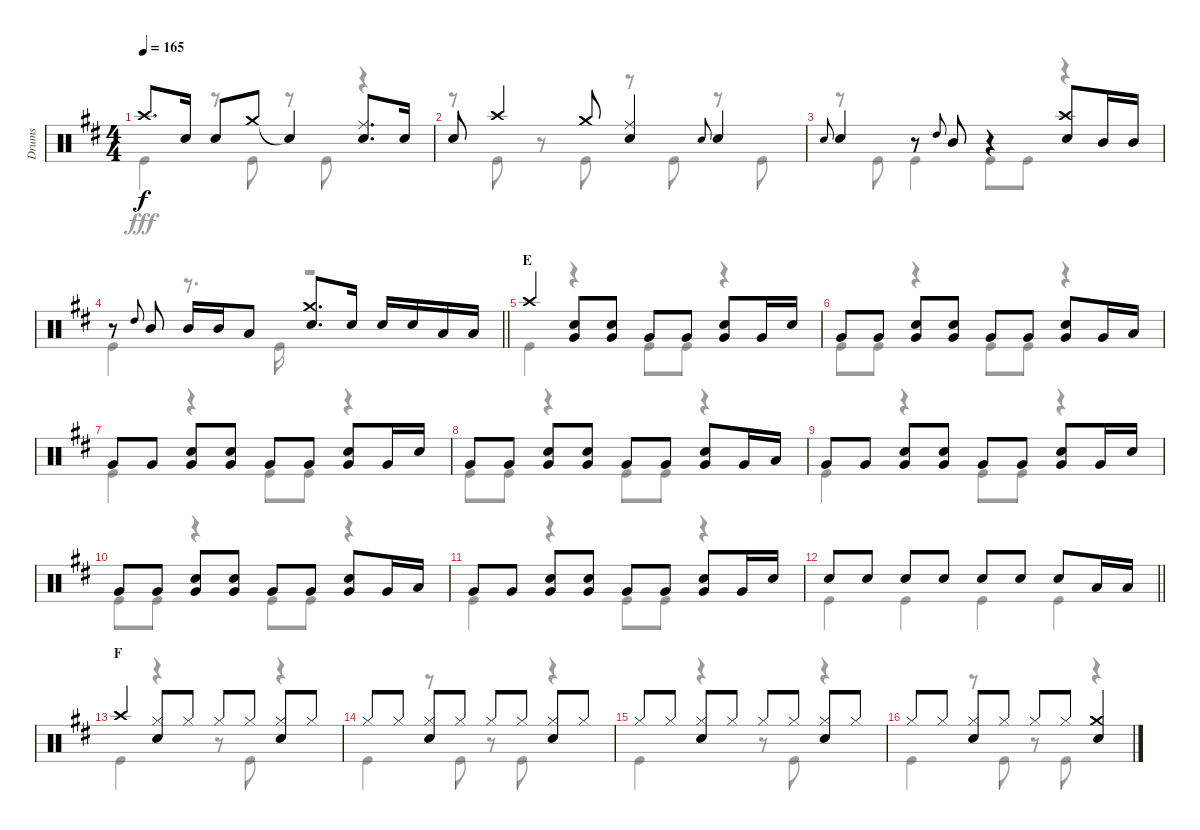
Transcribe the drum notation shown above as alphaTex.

\track ("Drums" "Drums") {instrument percussion}
\staff {score}
\articulation defaults
\voice
\ts (4 4)
\tempo 165
\clef neutral
\ks d "Crash high (hit)".8{d dy f} "Snare (hit) 2".16 "Snare (hit) 2".8 "Crash medium (hit)".8 "Snare (hit)"{t}.4
("Ride (middle)" "Snare (hit) 2").8{d} "Snare (hit) 2".16 |
"Snare (hit) 2".8 "Crash high (hit)".4 "Crash medium (hit)".8 ("Ride (middle)" "Snare (hit) 2").4 "Snare (hit) 2".8{gr onbeat} "Snare (hit) 2".4 |
"Snare (hit) 2".8{gr onbeat} "Snare (hit) 2".4 r.8 "High Tom (hit)".8{gr onbeat} "Mid Tom (hit)".8 r.4 ("Crash high (hit)" "Snare (hit) 2").8 "Mid Tom (hit)".16 "Mid Tom (hit)".16 |
\barLineRight lightlight
r.8 "High Tom (hit)".8{gr onbeat} "Mid Tom (hit)".8 "Mid Tom (hit)".16 "Mid Tom (hit)".16 "Low Tom (hit)".8 ("Crash medium (hit)" "Snare (hit) 2").8{d} "Snare (hit) 2".16 "Snare (hit) 2".16 "Snare (hit) 2".16 "Low Tom (hit)".16 "Low Tom (hit)".16 |
\section ("" "E")
"Crash high (hit)".4 ("Snare (hit) 2" "Very Low Tom (hit)").8 ("Snare (hit) 2" "Very Low Tom (hit)").8 "Very Low Tom (hit)".8 "Very Low Tom (hit)".8 ("Snare (hit) 2" "Very Low Tom (hit)").8 "Very Low Tom (hit)".16 "Snare (hit) 2".16 |
"Very Low Tom (hit)".8 "Very Low Tom (hit)".8 ("Snare (hit) 2" "Very Low Tom (hit)").8 ("Snare (hit) 2" "Very Low Tom (hit)").8 "Very Low Tom (hit)".8 "Very Low Tom (hit)".8 ("Snare (hit) 2" "Very Low Tom (hit)").8 "Very Low Tom (hit)".16 "Low Tom (hit)".16 |
"Very Low Tom (hit)".8 "Very Low Tom (hit)".8 ("Snare (hit) 2" "Very Low Tom (hit)").8 ("Snare (hit) 2" "Very Low Tom (hit)").8 "Very Low Tom (hit)".8 "Very Low Tom (hit)".8 ("Snare (hit) 2" "Very Low Tom (hit)").8 "Very Low Tom (hit)".16 "Snare (hit) 2".16 |
"Very Low Tom (hit)".8 "Very Low Tom (hit)".8 ("Snare (hit) 2" "Very Low Tom (hit)").8 ("Snare (hit) 2" "Very Low Tom (hit)").8 "Very Low Tom (hit)".8 "Very Low Tom (hit)".8 ("Snare (hit) 2" "Very Low Tom (hit)").8 "Very Low Tom (hit)".16 "Low Tom (hit)".16 |
"Very Low Tom (hit)".8 "Very Low Tom (hit)".8 ("Snare (hit) 2" "Very Low Tom (hit)").8 ("Snare (hit) 2" "Very Low Tom (hit)").8 "Very Low Tom (hit)".8 "Very Low Tom (hit)".8 ("Snare (hit) 2" "Very Low Tom (hit)").8 "Very Low Tom (hit)".16 "Snare (hit) 2".16 |
"Very Low Tom (hit)".8 "Very Low Tom (hit)".8 ("Snare (hit) 2" "Very Low Tom (hit)").8 ("Snare (hit) 2" "Very Low Tom (hit)").8 "Very Low Tom (hit)".8 "Very Low Tom (hit)".8 ("Snare (hit) 2" "Very Low Tom (hit)").8 "Very Low Tom (hit)".16 "Low Tom (hit)".16 |
"Very Low Tom (hit)".8 "Very Low Tom (hit)".8 ("Snare (hit) 2" "Very Low Tom (hit)").8 ("Snare (hit) 2" "Very Low Tom (hit)").8 "Very Low Tom (hit)".8 "Very Low Tom (hit)".8 ("Snare (hit) 2" "Very Low Tom (hit)").8 "Very Low Tom (hit)".16 "Snare (hit) 2".16 |
\barLineRight lightlight "Snare (hit) 2".8 "Snare (hit) 2".8 "Snare (hit) 2".8 "Snare (hit) 2".8 "Snare (hit) 2".8 "Snare (hit) 2".8 "Snare (hit) 2".8 "Low Tom (hit)".16 "Low Tom (hit)".16
|
\section ("" "F")
"Crash high (hit)".4 ("Hi-Hat (closed)" "Snare (hit) 2").8 "Hi-Hat (closed)".8 "Hi-Hat (closed)".8 "Hi-Hat (closed)".8 ("Hi-Hat (closed)" "Snare (hit) 2").8 "Hi-Hat (closed)".8 |
"Hi-Hat (closed)".8 "Hi-Hat (closed)".8 ("Hi-Hat (closed)" "Snare (hit) 2").8 "Hi-Hat (closed)".8 "Hi-Hat (closed)".8 "Hi-Hat (closed)".8 ("Hi-Hat (closed)" "Snare (hit) 2").8 "Hi-Hat (closed)".8 |
"Hi-Hat (closed)".8 "Hi-Hat (closed)".8 ("Hi-Hat (closed)" "Snare (hit) 2").8 "Hi-Hat (closed)".8 "Hi-Hat (closed)".8 "Hi-Hat (closed)".8 ("Hi-Hat (closed)" "Snare (hit) 2").8 "Hi-Hat (closed)".8 |
"Hi-Hat (closed)".8 "Hi-Hat (closed)".8 ("Hi-Hat (closed)" "Snare (hit) 2").8 "Hi-Hat (closed)".8 "Hi-Hat (closed)".8 "Hi-Hat (closed)".8 ("Crash medium (hit)" "Snare (hit) 2").4
\voice
\clef neutral
\ottava regular
\simile none
\ks d "Kick (hit)".4{dy fff}
r.8 "Kick (hit)".8 r.8 "Kick (hit)".8 r.4 |
r.8 "Kick (hit)".8 r.8 "Kick (hit)".8 r.8 "Kick (hit)".8 r.8 "Kick (hit)".8 |
r.8 "Kick (hit)".8 "Kick (hit)".4 "Kick (hit)".8 "Kick (hit)".8 r.4 |
\barLineRight lightlight "Kick (hit)".4
r.8{d} "Kick (hit)".16 r.2 |
"Kick (hit)".4 r.4 "Kick (hit)".8 "Kick (hit)".8 r.4 |
"Kick (hit)".8 "Kick (hit)".8 r.4 "Kick (hit)".8 "Kick (hit)".8 r.4 |
"Kick (hit)".4 r.4 "Kick (hit)".8 "Kick (hit)".8 r.4 |
"Kick (hit)".8 "Kick (hit)".8 r.4 "Kick (hit)".8 "Kick (hit)".8 r.4 |
"Kick (hit)".4 r.4 "Kick (hit)".8 "Kick (hit)".8 r.4 |
"Kick (hit)".8 "Kick (hit)".8 r.4 "Kick (hit)".8 "Kick (hit)".8 r.4 |
"Kick (hit)".4 r.4 "Kick (hit)".8 "Kick (hit)".8 r.4 |
\barLineRight lightlight "Kick (hit)".4 "Kick (hit)".4 "Kick (hit)".4 "Kick (hit)".4
|
"Kick (hit)".4 r.4 r.8 "Kick (hit)".8 r.4 |
"Kick (hit)".4 r.8 "Kick (hit)".8 r.8 "Kick (hit)".8 r.4 |
"Kick (hit)".4 r.4 r.8 "Kick (hit)".8 r.4 |
"Kick (hit)".4 r.8 "Kick (hit)".8 r.8 "Kick (hit)".8 r.4
